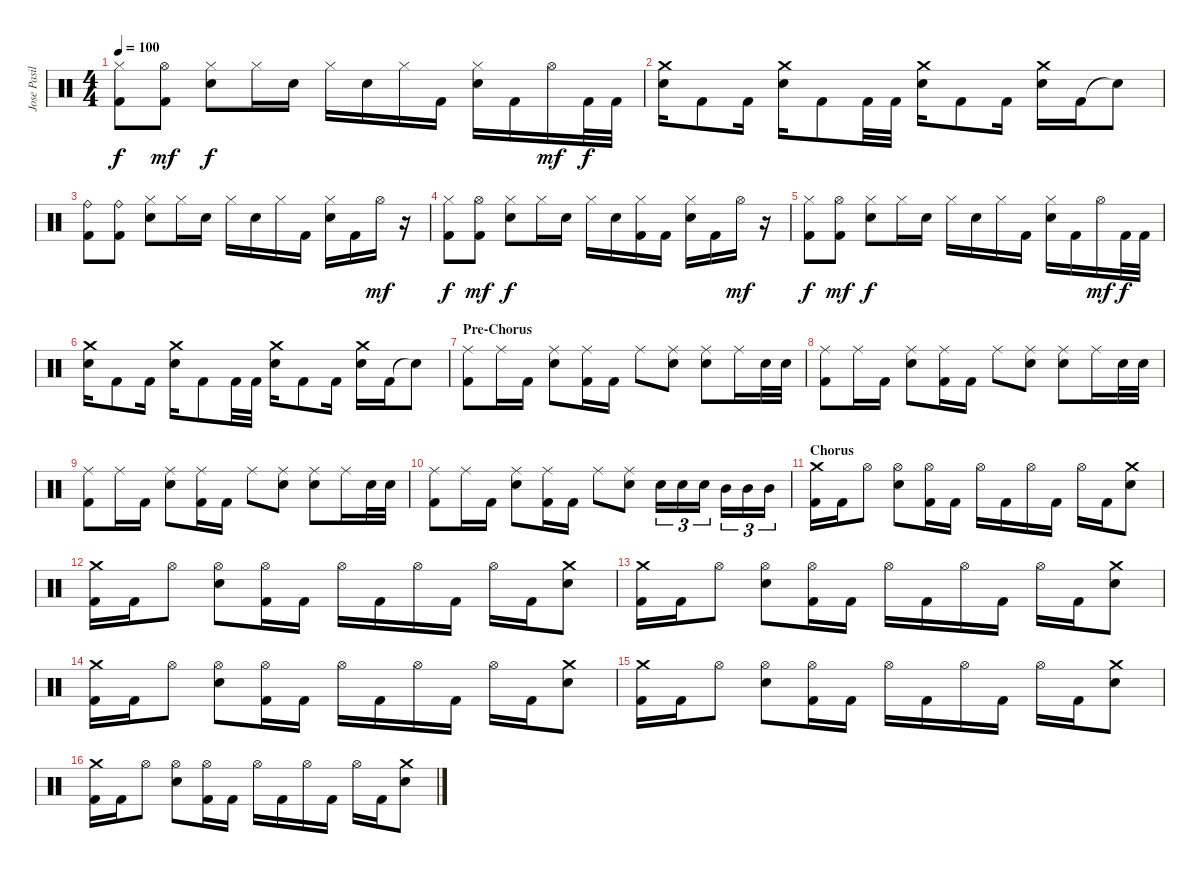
\track ("Jose Pasillas - Drums" "Jose Pasil") {instrument percussion}
\staff {score}
\articulation defaults
\ts (4 4)
\tempo 100
\clef neutral
\ks c
("Hi-Hat (closed)" "Kick (hit) 2").8{dy f} ("Hi-Hat (open)" "Kick (hit) 2").8{dy mf} ("Hi-Hat (closed)" "Electric Snare (hit)").8{dy f} "Hi-Hat (closed)".16 "Electric Snare (hit)".16 "Hi-Hat (closed)".16 "Electric Snare (hit)".16 "Hi-Hat (closed)".16 "Kick (hit) 2".16 ("Hi-Hat (closed)" "Electric Snare (hit)").16 "Kick (hit) 2".16 "Hi-Hat (open)".16{dy mf} "Kick (hit) 2".32{dy f} "Kick (hit) 2".32 |
("Crash medium (hit)" "Electric Snare (hit)").16 "Kick (hit) 2".8 "Kick (hit) 2".16 ("Crash medium (hit)" "Electric Snare (hit)").16 "Kick (hit) 2".8 "Kick (hit) 2".32 "Kick (hit) 2".32 ("Crash medium (hit)" "Electric Snare (hit)").16 "Kick (hit) 2".8 "Kick (hit) 2".16 ("Crash medium (hit)" "Electric Snare (hit)").16 "Kick (hit) 2".16 "Snare (hit)"{t}.8 |
("Ride (bell)" "Kick (hit) 2").8 ("Ride (bell)" "Kick (hit) 2").8 ("Hi-Hat (closed)" "Electric Snare (hit)").8 "Hi-Hat (closed)".16 "Electric Snare (hit)".16 "Hi-Hat (closed)".16 "Electric Snare (hit)".16 "Hi-Hat (closed)".16 "Kick (hit) 2".16 ("Hi-Hat (closed)" "Electric Snare (hit)").16 "Kick (hit) 2".16 "Hi-Hat (open)".16{dy mf} r.16 |
("Hi-Hat (closed)" "Kick (hit) 2").8{dy f} ("Hi-Hat (open)" "Kick (hit) 2").8{dy mf} ("Hi-Hat (closed)" "Electric Snare (hit)").8{dy f} "Hi-Hat (closed)".16 "Electric Snare (hit)".16 "Hi-Hat (closed)".16 "Electric Snare (hit)".16 ("Hi-Hat (closed)" "Kick (hit) 2").16 "Kick (hit) 2".16 ("Hi-Hat (closed)" "Electric Snare (hit)").16 "Kick (hit) 2".16 "Hi-Hat (open)".16{dy mf} r.16 |
("Hi-Hat (closed)" "Kick (hit) 2").8{dy f} ("Hi-Hat (open)" "Kick (hit) 2").8{dy mf} ("Hi-Hat (closed)" "Electric Snare (hit)").8{dy f} "Hi-Hat (closed)".16 "Electric Snare (hit)".16 "Hi-Hat (closed)".16 "Electric Snare (hit)".16 "Hi-Hat (closed)".16 "Kick (hit) 2".16 ("Hi-Hat (closed)" "Electric Snare (hit)").16 "Kick (hit) 2".16 "Hi-Hat (open)".16{dy mf} "Kick (hit) 2".32{dy f} "Kick (hit) 2".32 |
("Crash medium (hit)" "Electric Snare (hit)").16 "Kick (hit) 2".8 "Kick (hit) 2".16 ("Crash medium (hit)" "Electric Snare (hit)").16 "Kick (hit) 2".8 "Kick (hit) 2".32 "Kick (hit) 2".32 ("Crash medium (hit)" "Electric Snare (hit)").16 "Kick (hit) 2".8 "Kick (hit) 2".16 ("Crash medium (hit)" "Electric Snare (hit)").16 "Kick (hit) 2".16 "Snare (hit)"{t}.8 |
\section ("" "Pre-Chorus")
("Ride (middle)" "Kick (hit) 2").8 "Ride (middle)".16 "Kick (hit) 2".16 ("Ride (middle)" "Electric Snare (hit)").8 ("Ride (middle)" "Kick (hit) 2").16 "Kick (hit) 2".16 "Ride (middle)".8 ("Ride (middle)" "Electric Snare (hit)").8 ("Ride (middle)" "Electric Snare (hit)").8 "Ride (middle)".16 "Electric Snare (hit)".32 "Electric Snare (hit)".32 |
("Ride (middle)" "Kick (hit) 2").8 "Ride (middle)".16 "Kick (hit) 2".16 ("Ride (middle)" "Electric Snare (hit)").8 ("Ride (middle)" "Kick (hit) 2").16 "Kick (hit) 2".16 "Ride (middle)".8 ("Ride (middle)" "Electric Snare (hit)").8 ("Ride (middle)" "Electric Snare (hit)").8 "Ride (middle)".16 "Electric Snare (hit)".32 "Electric Snare (hit)".32 |
("Ride (middle)" "Kick (hit) 2").8 "Ride (middle)".16 "Kick (hit) 2".16 ("Ride (middle)" "Electric Snare (hit)").8 ("Ride (middle)" "Kick (hit) 2").16 "Kick (hit) 2".16 "Ride (middle)".8 ("Ride (middle)" "Electric Snare (hit)").8 ("Ride (middle)" "Electric Snare (hit)").8 "Ride (middle)".16 "Electric Snare (hit)".32 "Electric Snare (hit)".32 |
("Ride (middle)" "Kick (hit) 2").8 "Ride (middle)".16 "Kick (hit) 2".16 ("Ride (middle)" "Electric Snare (hit)").8 ("Ride (middle)" "Kick (hit) 2").16 "Kick (hit) 2".16 "Ride (middle)".8 ("Ride (middle)" "Electric Snare (hit)").8 "Electric Snare (hit)".16{tu (3 2)} "Electric Snare (hit)".16{tu (3 2)} "Electric Snare (hit)".16{tu (3 2)} "Mid Tom (hit)".16{tu (3 2)} "Mid Tom (hit)".16{tu (3 2)} "Mid Tom (hit)".16{tu (3 2)} |
\section ("" "Chorus")
("Crash medium (hit)" "Kick (hit) 2").16 "Kick (hit) 2".16 "Hi-Hat (open)".8 ("Hi-Hat (open)" "Electric Snare (hit)").8 ("Hi-Hat (open)" "Kick (hit) 2").16 "Kick (hit) 2".16 "Hi-Hat (open)".16 "Kick (hit) 2".16 "Hi-Hat (open)".16 "Kick (hit) 2".16 "Hi-Hat (open)".16 "Kick (hit) 2".16 ("Crash medium (hit)" "Electric Snare (hit)").8 |
("Crash medium (hit)" "Kick (hit) 2").16 "Kick (hit) 2".16 "Hi-Hat (open)".8 ("Hi-Hat (open)" "Electric Snare (hit)").8 ("Hi-Hat (open)" "Kick (hit) 2").16 "Kick (hit) 2".16 "Hi-Hat (open)".16 "Kick (hit) 2".16 "Hi-Hat (open)".16 "Kick (hit) 2".16 "Hi-Hat (open)".16 "Kick (hit) 2".16 ("Crash medium (hit)" "Electric Snare (hit)").8 |
("Crash medium (hit)" "Kick (hit) 2").16 "Kick (hit) 2".16 "Hi-Hat (open)".8 ("Hi-Hat (open)" "Electric Snare (hit)").8 ("Hi-Hat (open)" "Kick (hit) 2").16 "Kick (hit) 2".16 "Hi-Hat (open)".16 "Kick (hit) 2".16 "Hi-Hat (open)".16 "Kick (hit) 2".16 "Hi-Hat (open)".16 "Kick (hit) 2".16 ("Crash medium (hit)" "Electric Snare (hit)").8 |
("Crash medium (hit)" "Kick (hit) 2").16 "Kick (hit) 2".16 "Hi-Hat (open)".8 ("Hi-Hat (open)" "Electric Snare (hit)").8 ("Hi-Hat (open)" "Kick (hit) 2").16 "Kick (hit) 2".16 "Hi-Hat (open)".16 "Kick (hit) 2".16 "Hi-Hat (open)".16 "Kick (hit) 2".16 "Hi-Hat (open)".16 "Kick (hit) 2".16 ("Crash medium (hit)" "Electric Snare (hit)").8 |
("Crash medium (hit)" "Kick (hit) 2").16 "Kick (hit) 2".16 "Hi-Hat (open)".8 ("Hi-Hat (open)" "Electric Snare (hit)").8 ("Hi-Hat (open)" "Kick (hit) 2").16 "Kick (hit) 2".16 "Hi-Hat (open)".16 "Kick (hit) 2".16 "Hi-Hat (open)".16 "Kick (hit) 2".16 "Hi-Hat (open)".16 "Kick (hit) 2".16 ("Crash medium (hit)" "Electric Snare (hit)").8 |
("Crash medium (hit)" "Kick (hit) 2").16 "Kick (hit) 2".16 "Hi-Hat (open)".8 ("Hi-Hat (open)" "Electric Snare (hit)").8 ("Hi-Hat (open)" "Kick (hit) 2").16 "Kick (hit) 2".16 "Hi-Hat (open)".16 "Kick (hit) 2".16 "Hi-Hat (open)".16 "Kick (hit) 2".16 "Hi-Hat (open)".16 "Kick (hit) 2".16 ("Crash medium (hit)" "Electric Snare (hit)").8
